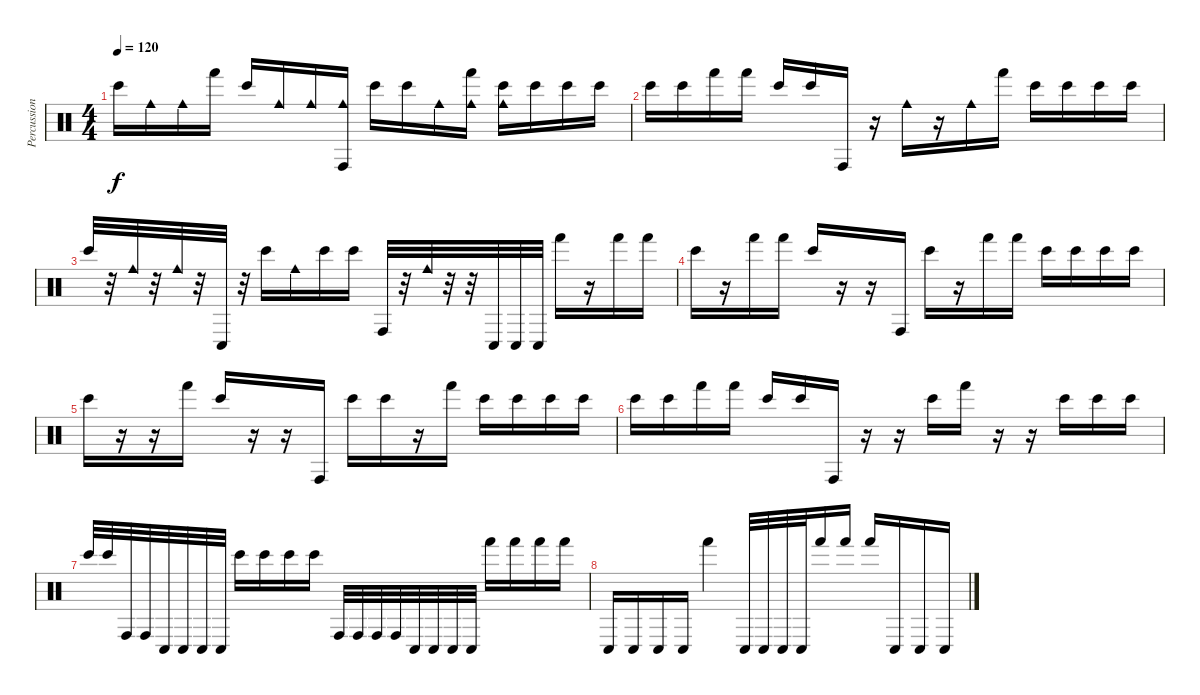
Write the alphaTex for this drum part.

\track ("Percussions" "Percussion") {instrument percussion}
\staff {score}
\articulation defaults
\ts (4 4)
\tempo 120
\clef neutral
\ks c "Bongo High (hit)".16{dy f} "Cowbell medium (hit)".16 "Cowbell medium (hit)".16 "Hand (hit)".16 "Bongo High (hit)".16 "Cowbell medium (hit)".16 "Cowbell medium (hit)".16
("Cowbell medium (hit)" "Conga high (hit)").16 "Bongo High (hit)".16 "Bongo High (hit)".16 "Cowbell medium (hit)".16 ("Cowbell medium (hit)" "Hand (hit)").16 ("Cowbell medium (hit)" "Bongo High (hit)").16 "Bongo High (hit)".16 "Bongo High (hit)".16 "Bongo High (hit)".16 |
"Bongo High (hit)".16 "Bongo High (hit)".16 "Hand (hit)".16 "Hand (hit)".16 "Bongo High (hit)".16 "Bongo High (hit)".16 "Conga high (hit)".16 r.16 "Cowbell medium (hit)".16 r.16 "Cowbell medium (hit)".16 "Hand (hit)".16 "Bongo High (hit)".16 "Bongo High (hit)".16 "Bongo High (hit)".16 "Bongo High (hit)".16 |
"Bongo High (hit)".32 r.32 "Cowbell medium (hit)".32 r.32 "Cowbell medium (hit)".32 r.32 "Conga low (hit)".32 r.32 "Bongo High (hit)".16 "Cowbell medium (hit)".16 "Bongo High (hit)".16 "Bongo High (hit)".16 "Conga high (hit)".32 r.32 "Cowbell medium (hit)".32 r.32 r.32 "Conga low (hit)".32 "Conga low (hit)".32 "Conga low (hit)".32 "Hand (hit)".16 r.16 "Hand (hit)".16 "Hand (hit)".16 |
"Bongo High (hit)".16 r.16 "Hand (hit)".16 "Hand (hit)".16 "Bongo High (hit)".16 r.16 r.16 "Conga high (hit)".16 "Bongo High (hit)".16 r.16 "Hand (hit)".16 "Hand (hit)".16 "Bongo High (hit)".16 "Bongo High (hit)".16 "Bongo High (hit)".16 "Bongo High (hit)".16 |
"Bongo High (hit)".16 r.16 r.16 "Hand (hit)".16 "Bongo High (hit)".16 r.16 r.16 "Conga high (hit)".16 "Bongo High (hit)".16 "Bongo High (hit)".16 r.16 "Hand (hit)".16 "Bongo High (hit)".16 "Bongo High (hit)".16 "Bongo High (hit)".16 "Bongo High (hit)".16 |
"Bongo High (hit)".16 "Bongo High (hit)".16 "Hand (hit)".16 "Hand (hit)".16 "Bongo High (hit)".16 "Bongo High (hit)".16 "Conga high (hit)".16 r.16 r.16 "Bongo High (hit)".16 "Hand (hit)".16 r.16 r.16 "Bongo High (hit)".16 "Bongo High (hit)".16 "Bongo High (hit)".16 |
"Bongo High (hit)".32 "Bongo High (hit)".32 "Conga high (hit)".32 "Conga high (hit)".32 "Conga low (hit)".32 "Conga low (hit)".32 "Conga low (hit)".32 "Conga low (hit)".32 "Bongo High (hit)".16 "Bongo High (hit)".16 "Bongo High (hit)".16 "Bongo High (hit)".16 "Conga high (hit)".32 "Conga high (hit)".32 "Conga high (hit)".32 "Conga high (hit)".32 "Conga low (hit)".32 "Conga low (hit)".32 "Conga low (hit)".32 "Conga low (hit)".32 "Hand (hit)".16 "Hand (hit)".16 "Hand (hit)".16 "Hand (hit)".16 |
"Conga low (hit)".16 "Conga low (hit)".16 "Conga low (hit)".16 "Conga low (hit)".16 "Hand (hit)".4 "Conga low (hit)".32 "Conga low (hit)".32 "Conga low (hit)".32 "Conga low (hit)".32 "Hand (hit)".16 "Hand (hit)".16 "Hand (hit)".16 "Conga low (hit)".16 "Conga low (hit)".16 "Conga low (hit)".16
